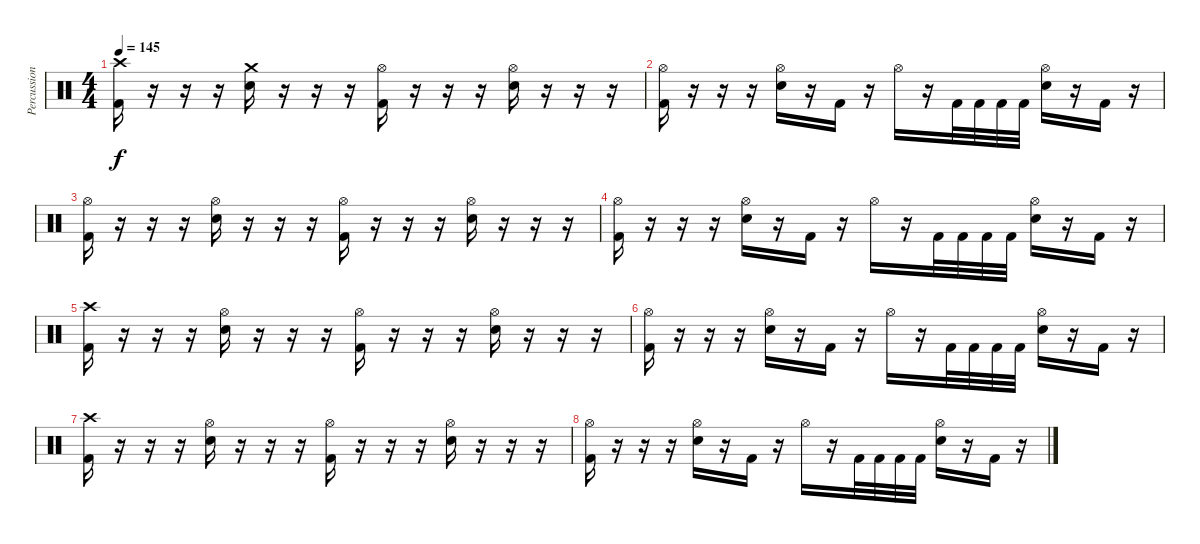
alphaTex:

\track ("Percussion" "Percussion") {instrument percussion}
\staff {score}
\articulation defaults
\ts (4 4)
\tempo 145
\clef neutral
\ks c
("Crash high (hit)" "Kick (hit) 2").16{dy f} r.16 r.16 r.16 ("Crash medium (hit)" "Snare (hit) 2").16 r.16 r.16 r.16 ("Hi-Hat (open)" "Kick (hit) 2").16 r.16 r.16 r.16 ("Hi-Hat (open)" "Snare (hit) 2").16 r.16 r.16 r.16 |
("Hi-Hat (open)" "Kick (hit) 2").16 r.16 r.16 r.16 ("Hi-Hat (open)" "Snare (hit) 2").16 r.16 "Kick (hit) 2".16 r.16 "Hi-Hat (open)".16 r.16 "Kick (hit) 2".32 "Kick (hit) 2".32 "Kick (hit) 2".32 "Kick (hit) 2".32 ("Hi-Hat (open)" "Snare (hit) 2").16 r.16 "Kick (hit) 2".16 r.16 |
("Hi-Hat (open)" "Kick (hit) 2").16 r.16 r.16 r.16 ("Hi-Hat (open)" "Snare (hit) 2").16 r.16 r.16 r.16 ("Hi-Hat (open)" "Kick (hit) 2").16 r.16 r.16 r.16 ("Hi-Hat (open)" "Snare (hit) 2").16 r.16 r.16 r.16 |
("Hi-Hat (open)" "Kick (hit) 2").16 r.16 r.16 r.16 ("Hi-Hat (open)" "Snare (hit) 2").16 r.16 "Kick (hit) 2".16 r.16 "Hi-Hat (open)".16 r.16 "Kick (hit) 2".32 "Kick (hit) 2".32 "Kick (hit) 2".32 "Kick (hit) 2".32 ("Hi-Hat (open)" "Snare (hit) 2").16 r.16 "Kick (hit) 2".16 r.16 |
("Crash high (hit)" "Kick (hit) 2").16 r.16 r.16 r.16 ("Hi-Hat (open)" "Snare (hit) 2").16 r.16 r.16 r.16 ("Hi-Hat (open)" "Kick (hit) 2").16 r.16 r.16 r.16 ("Hi-Hat (open)" "Snare (hit) 2").16 r.16 r.16 r.16 |
("Hi-Hat (open)" "Kick (hit) 2").16 r.16 r.16 r.16 ("Hi-Hat (open)" "Snare (hit) 2").16 r.16 "Kick (hit) 2".16 r.16 "Hi-Hat (open)".16 r.16 "Kick (hit) 2".32 "Kick (hit) 2".32 "Kick (hit) 2".32 "Kick (hit) 2".32 ("Hi-Hat (open)" "Snare (hit) 2").16 r.16 "Kick (hit) 2".16 r.16 |
("Crash high (hit)" "Kick (hit) 2").16 r.16 r.16 r.16 ("Hi-Hat (open)" "Snare (hit) 2").16 r.16 r.16 r.16 ("Hi-Hat (open)" "Kick (hit) 2").16 r.16 r.16 r.16 ("Hi-Hat (open)" "Snare (hit) 2").16 r.16 r.16 r.16 |
("Hi-Hat (open)" "Kick (hit) 2").16 r.16 r.16 r.16 ("Hi-Hat (open)" "Snare (hit) 2").16 r.16 "Kick (hit) 2".16 r.16 "Hi-Hat (open)".16 r.16 "Kick (hit) 2".32 "Kick (hit) 2".32 "Kick (hit) 2".32 "Kick (hit) 2".32 ("Hi-Hat (open)" "Snare (hit) 2").16 r.16 "Kick (hit) 2".16 r.16
